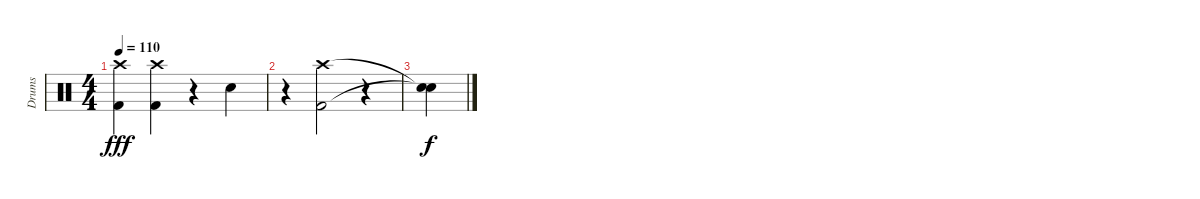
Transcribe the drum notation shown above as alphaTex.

\track ("Drums" "Drums") {instrument percussion}
\staff {score}
\articulation defaults
\ts (4 4)
\tempo 110
\clef neutral
\ks c
("Crash high (hit)" "Kick (hit) 2").4{dy fff} ("Crash high (hit)" "Kick (hit) 2").4 r.4 "Snare (hit) 2".4 |
r.4 ("Crash high (hit)" "Kick (hit) 2").2 r.4 |
("Snare (hit)"{t} "Snare (hit)"{t}).4{dy f}
